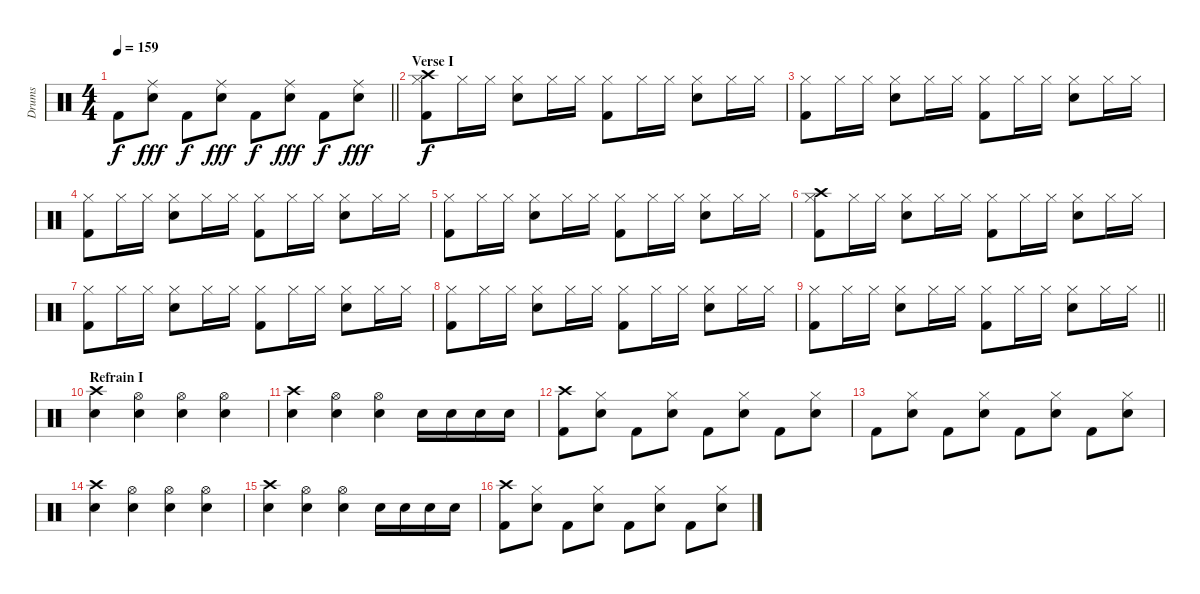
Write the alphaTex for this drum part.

\track ("Drums" "Drums") {instrument percussion}
\staff {score}
\articulation defaults
\ts (4 4)
\tempo 159
\clef neutral
\barLineRight lightlight
\ks c "Kick (hit) 2".8{dy f}
("Ride (middle)" "Snare (hit) 2").8{dy fff} "Kick (hit) 2".8{dy f} ("Ride (middle)" "Snare (hit) 2").8{dy fff} "Kick (hit) 2".8{dy f} ("Ride (middle)" "Snare (hit) 2").8{dy fff} "Kick (hit) 2".8{dy f} ("Ride (middle)" "Snare (hit) 2").8{dy fff} |
\section ("" "Verse I")
("Crash high (hit)" "Hi-Hat (closed)" "Kick (hit) 2").8{dy f} "Hi-Hat (closed)".16 "Hi-Hat (closed)".16 ("Hi-Hat (closed)" "Snare (hit) 2").8 "Hi-Hat (closed)".16 "Hi-Hat (closed)".16 ("Hi-Hat (closed)" "Kick (hit) 2").8 "Hi-Hat (closed)".16 "Hi-Hat (closed)".16 ("Hi-Hat (closed)" "Snare (hit) 2").8 "Hi-Hat (closed)".16 "Hi-Hat (closed)".16 |
("Hi-Hat (closed)" "Kick (hit) 2").8 "Hi-Hat (closed)".16 "Hi-Hat (closed)".16 ("Hi-Hat (closed)" "Snare (hit) 2").8 "Hi-Hat (closed)".16 "Hi-Hat (closed)".16 ("Hi-Hat (closed)" "Kick (hit) 2").8 "Hi-Hat (closed)".16 "Hi-Hat (closed)".16 ("Hi-Hat (closed)" "Snare (hit) 2").8 "Hi-Hat (closed)".16 "Hi-Hat (closed)".16 |
("Hi-Hat (closed)" "Kick (hit) 2").8 "Hi-Hat (closed)".16 "Hi-Hat (closed)".16 ("Hi-Hat (closed)" "Snare (hit) 2").8 "Hi-Hat (closed)".16 "Hi-Hat (closed)".16 ("Hi-Hat (closed)" "Kick (hit) 2").8 "Hi-Hat (closed)".16 "Hi-Hat (closed)".16 ("Hi-Hat (closed)" "Snare (hit) 2").8 "Hi-Hat (closed)".16 "Hi-Hat (closed)".16 |
("Hi-Hat (closed)" "Kick (hit) 2").8 "Hi-Hat (closed)".16 "Hi-Hat (closed)".16 ("Hi-Hat (closed)" "Snare (hit) 2").8 "Hi-Hat (closed)".16 "Hi-Hat (closed)".16 ("Hi-Hat (closed)" "Kick (hit) 2").8 "Hi-Hat (closed)".16 "Hi-Hat (closed)".16 ("Hi-Hat (closed)" "Snare (hit) 2").8 "Hi-Hat (closed)".16 "Hi-Hat (closed)".16 |
("Crash high (hit)" "Hi-Hat (closed)" "Kick (hit) 2").8 "Hi-Hat (closed)".16 "Hi-Hat (closed)".16 ("Hi-Hat (closed)" "Snare (hit) 2").8 "Hi-Hat (closed)".16 "Hi-Hat (closed)".16 ("Hi-Hat (closed)" "Kick (hit) 2").8 "Hi-Hat (closed)".16 "Hi-Hat (closed)".16 ("Hi-Hat (closed)" "Snare (hit) 2").8 "Hi-Hat (closed)".16 "Hi-Hat (closed)".16 |
("Hi-Hat (closed)" "Kick (hit) 2").8 "Hi-Hat (closed)".16 "Hi-Hat (closed)".16 ("Hi-Hat (closed)" "Snare (hit) 2").8 "Hi-Hat (closed)".16 "Hi-Hat (closed)".16 ("Hi-Hat (closed)" "Kick (hit) 2").8 "Hi-Hat (closed)".16 "Hi-Hat (closed)".16 ("Hi-Hat (closed)" "Snare (hit) 2").8 "Hi-Hat (closed)".16 "Hi-Hat (closed)".16 |
("Hi-Hat (closed)" "Kick (hit) 2").8 "Hi-Hat (closed)".16 "Hi-Hat (closed)".16 ("Hi-Hat (closed)" "Snare (hit) 2").8 "Hi-Hat (closed)".16 "Hi-Hat (closed)".16 ("Hi-Hat (closed)" "Kick (hit) 2").8 "Hi-Hat (closed)".16 "Hi-Hat (closed)".16 ("Hi-Hat (closed)" "Snare (hit) 2").8 "Hi-Hat (closed)".16 "Hi-Hat (closed)".16 |
\barLineRight lightlight
("Hi-Hat (closed)" "Kick (hit) 2").8 "Hi-Hat (closed)".16 "Hi-Hat (closed)".16 ("Hi-Hat (closed)" "Snare (hit) 2").8 "Hi-Hat (closed)".16 "Hi-Hat (closed)".16 ("Hi-Hat (closed)" "Kick (hit) 2").8 "Hi-Hat (closed)".16 "Hi-Hat (closed)".16 ("Hi-Hat (closed)" "Snare (hit) 2").8 "Hi-Hat (closed)".16 "Hi-Hat (closed)".16 |
\section ("" "Refrain I")
("Crash high (hit)" "Snare (hit) 2").4 ("Hi-Hat (open)" "Snare (hit) 2").4 ("Hi-Hat (open)" "Snare (hit) 2").4 ("Hi-Hat (open)" "Snare (hit) 2").4 |
("Crash high (hit)" "Snare (hit) 2").4 ("Hi-Hat (open)" "Snare (hit) 2").4 ("Hi-Hat (open)" "Snare (hit) 2").4 "Snare (hit) 2".16 "Snare (hit) 2".16 "Snare (hit) 2".16 "Snare (hit) 2".16 |
("Crash high (hit)" "Kick (hit) 2").8 ("Hi-Hat (closed)" "Snare (hit) 2").8 "Kick (hit) 2".8 ("Hi-Hat (closed)" "Snare (hit) 2").8 "Kick (hit) 2".8 ("Hi-Hat (closed)" "Snare (hit) 2").8 "Kick (hit) 2".8 ("Hi-Hat (closed)" "Snare (hit) 2").8 |
"Kick (hit) 2".8 ("Hi-Hat (closed)" "Snare (hit) 2").8 "Kick (hit) 2".8 ("Hi-Hat (closed)" "Snare (hit) 2").8 "Kick (hit) 2".8 ("Hi-Hat (closed)" "Snare (hit) 2").8 "Kick (hit) 2".8 ("Hi-Hat (closed)" "Snare (hit) 2").8 |
("Crash high (hit)" "Snare (hit) 2").4 ("Hi-Hat (open)" "Snare (hit) 2").4 ("Hi-Hat (open)" "Snare (hit) 2").4 ("Hi-Hat (open)" "Snare (hit) 2").4 |
("Crash high (hit)" "Snare (hit) 2").4 ("Hi-Hat (open)" "Snare (hit) 2").4 ("Hi-Hat (open)" "Snare (hit) 2").4 "Snare (hit) 2".16 "Snare (hit) 2".16 "Snare (hit) 2".16 "Snare (hit) 2".16 |
("Crash high (hit)" "Kick (hit) 2").8 ("Hi-Hat (closed)" "Snare (hit) 2").8 "Kick (hit) 2".8 ("Hi-Hat (closed)" "Snare (hit) 2").8 "Kick (hit) 2".8 ("Hi-Hat (closed)" "Snare (hit) 2").8 "Kick (hit) 2".8 ("Hi-Hat (closed)" "Snare (hit) 2").8
